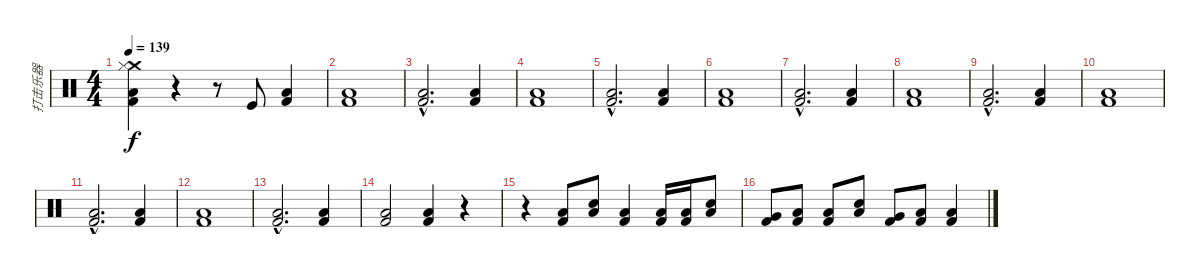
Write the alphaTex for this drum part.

\track ("打击乐器" "打击乐器") {instrument percussion}
\staff {score}
\articulation defaults
\ts (4 4)
\tempo 139
\clef neutral
\ks c
("Crash medium (hit)" "Kick (hit) 2" "Hi-Hat (closed)" "Low Floor Tom (hit)").4{dy f} r.4 r.8 "Kick (hit)".8 ("Kick (hit) 2" "Low Floor Tom (hit)").4 |
("Kick (hit) 2" "Low Floor Tom (hit)").1 |
("Kick (hit) 2"{hac} "Low Floor Tom (hit)"{hac}).2{d} ("Kick (hit) 2" "Low Floor Tom (hit)").4 |
("Kick (hit) 2" "Low Floor Tom (hit)").1 |
("Kick (hit) 2"{hac} "Low Floor Tom (hit)"{hac}).2{d} ("Kick (hit) 2" "Low Floor Tom (hit)").4 |
("Kick (hit) 2" "Low Floor Tom (hit)").1 |
("Kick (hit) 2"{hac} "Low Floor Tom (hit)"{hac}).2{d} ("Kick (hit) 2" "Low Floor Tom (hit)").4 |
("Kick (hit) 2" "Low Floor Tom (hit)").1 |
("Kick (hit) 2"{hac} "Low Floor Tom (hit)"{hac}).2{d} ("Kick (hit) 2" "Low Floor Tom (hit)").4 |
("Kick (hit) 2" "Low Floor Tom (hit)").1 |
("Kick (hit) 2"{hac} "Low Floor Tom (hit)"{hac}).2{d} ("Kick (hit) 2" "Low Floor Tom (hit)").4 |
("Kick (hit) 2" "Low Floor Tom (hit)").1 |
("Kick (hit) 2"{hac} "Low Floor Tom (hit)"{hac}).2{d} ("Kick (hit) 2" "Low Floor Tom (hit)").4 |
("Kick (hit) 2" "Low Floor Tom (hit)").2 ("Kick (hit) 2" "Low Floor Tom (hit)").4 r.4 |
r.4 ("Kick (hit) 2" "Low Floor Tom (hit)").8 ("Electric Snare (hit)" "Low Tom (hit)").8 ("Kick (hit) 2" "Low Floor Tom (hit)").4 ("Kick (hit) 2" "Low Floor Tom (hit)").16 ("Kick (hit) 2" "Low Floor Tom (hit)").16 ("Electric Snare (hit)" "Low Tom (hit)").8 |
("Kick (hit) 2" "Very Low Tom (hit)").8 ("Kick (hit) 2" "Low Floor Tom (hit)").8 ("Kick (hit) 2" "Low Floor Tom (hit)").8 ("Electric Snare (hit)" "Low Tom (hit)").8 ("Kick (hit) 2" "Very Low Tom (hit)").8 ("Kick (hit) 2" "Low Floor Tom (hit)").8 ("Kick (hit) 2" "Low Floor Tom (hit)").4
